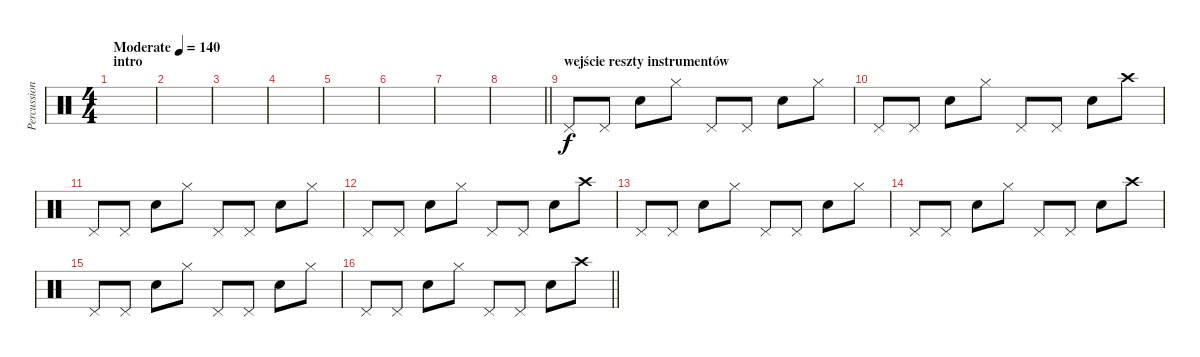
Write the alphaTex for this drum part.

\track ("Percussion" "Percussion") {instrument percussion}
\staff {score}
\articulation defaults
\ts (4 4)
\section ("" "intro")
\tempo (140 "Moderate")
\clef neutral
\ks c
|
|
|
|
|
|
|
\barLineRight lightlight
|
\section ("" "wejście reszty instrumentów")
"Pedal Hi-Hat (hit)".8 "Pedal Hi-Hat (hit)".8 "Snare (hit) 2".8 "Hi-Hat (closed)".8 "Pedal Hi-Hat (hit)".8 "Pedal Hi-Hat (hit)".8 "Snare (hit) 2".8 "Hi-Hat (closed)".8 |
"Pedal Hi-Hat (hit)".8 "Pedal Hi-Hat (hit)".8 "Snare (hit) 2".8 "Hi-Hat (closed)".8 "Pedal Hi-Hat (hit)".8 "Pedal Hi-Hat (hit)".8 "Snare (hit) 2".8 "Crash high (hit)".8 |
"Pedal Hi-Hat (hit)".8 "Pedal Hi-Hat (hit)".8 "Snare (hit) 2".8 "Hi-Hat (closed)".8 "Pedal Hi-Hat (hit)".8 "Pedal Hi-Hat (hit)".8 "Snare (hit) 2".8 "Hi-Hat (closed)".8 |
"Pedal Hi-Hat (hit)".8 "Pedal Hi-Hat (hit)".8 "Snare (hit) 2".8 "Hi-Hat (closed)".8 "Pedal Hi-Hat (hit)".8 "Pedal Hi-Hat (hit)".8 "Snare (hit) 2".8 "Crash high (hit)".8 |
"Pedal Hi-Hat (hit)".8 "Pedal Hi-Hat (hit)".8 "Snare (hit) 2".8 "Hi-Hat (closed)".8 "Pedal Hi-Hat (hit)".8 "Pedal Hi-Hat (hit)".8 "Snare (hit) 2".8 "Hi-Hat (closed)".8 |
"Pedal Hi-Hat (hit)".8 "Pedal Hi-Hat (hit)".8 "Snare (hit) 2".8 "Hi-Hat (closed)".8 "Pedal Hi-Hat (hit)".8 "Pedal Hi-Hat (hit)".8 "Snare (hit) 2".8 "Crash high (hit)".8 |
"Pedal Hi-Hat (hit)".8 "Pedal Hi-Hat (hit)".8 "Snare (hit) 2".8 "Hi-Hat (closed)".8 "Pedal Hi-Hat (hit)".8 "Pedal Hi-Hat (hit)".8 "Snare (hit) 2".8 "Hi-Hat (closed)".8 |
\barLineRight lightlight "Pedal Hi-Hat (hit)".8 "Pedal Hi-Hat (hit)".8 "Snare (hit) 2".8 "Hi-Hat (closed)".8 "Pedal Hi-Hat (hit)".8 "Pedal Hi-Hat (hit)".8 "Snare (hit) 2".8 "Crash high (hit)".8
